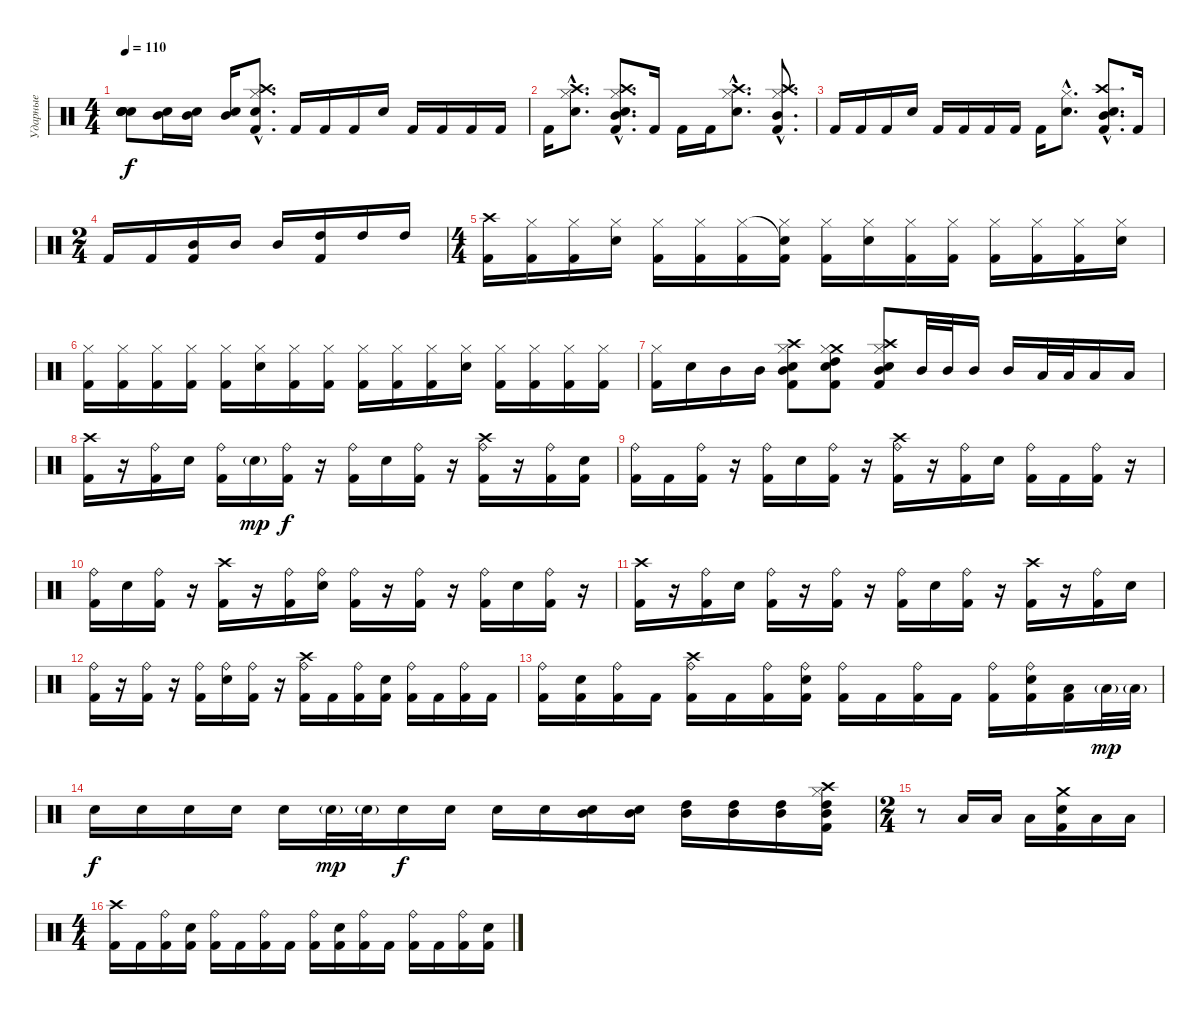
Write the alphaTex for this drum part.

\track ("Ударные" "Ударные") {instrument percussion}
\staff {score}
\articulation defaults
\ts (4 4)
\tempo 110
\clef neutral
\ks c
("Snare (hit)"{t} "Snare (hit)"{t} "Snare (hit)"{t} "Snare (hit)"{t} "Snare (hit)"{t}).8{dy f} ("Electric Snare (hit)" "Mid Tom (hit)").16 ("Electric Snare (hit)" "Mid Tom (hit)").16 ("Electric Snare (hit)" "Mid Tom (hit)").16 ("Crash high (hit)"{hac} "Hi-Hat (closed)"{hac} "Electric Snare (hit)"{hac} "Kick (hit) 2"{hac}).8{d} "Kick (hit) 2".16 "Kick (hit) 2".16 "Kick (hit) 2".16 "Electric Snare (hit)".16 "Kick (hit) 2".16 "Kick (hit) 2".16 "Kick (hit) 2".16 "Kick (hit) 2".16 |
"Kick (hit) 2".16 ("Crash high (hit)"{hac} "Hi-Hat (closed)"{hac} "Electric Snare (hit)"{hac}).8{d} ("Crash high (hit)"{hac} "Hi-Hat (closed)"{hac} "Electric Snare (hit)"{hac} "Mid Tom (hit)"{hac} "Kick (hit) 2"{hac}).8{d} "Kick (hit) 2".16 "Kick (hit) 2".16 "Kick (hit) 2".16 ("Crash high (hit)"{hac} "Hi-Hat (closed)"{hac} "Electric Snare (hit)"{hac}).8{d} ("Crash high (hit)"{hac} "Hi-Hat (closed)"{hac} "Mid Tom (hit)"{hac} "Kick (hit) 2"{hac}).8{d} |
"Kick (hit) 2".16 "Kick (hit) 2".16 "Kick (hit) 2".16 "Electric Snare (hit)".16 "Kick (hit) 2".16 "Kick (hit) 2".16 "Kick (hit) 2".16 "Kick (hit) 2".16 "Kick (hit) 2".16 ("Hi-Hat (closed)"{hac} "Electric Snare (hit)"{hac}).8{d} ("Crash high (hit)"{hac} "Mid Tom (hit)"{hac} "Electric Snare (hit)"{hac} "Kick (hit) 2"{hac}).8{d} "Kick (hit) 2".16 |
\ts (2 4)
"Kick (hit) 2".16 "Kick (hit) 2".16 ("Mid Tom (hit)" "Kick (hit) 2").16 "Mid Tom (hit)".16 "Mid Tom (hit)".16 ("High Tom (hit)" "Kick (hit) 2").16 "High Tom (hit)".16 "High Tom (hit)".16 |
\ts (4 4)
("Crash high (hit)" "Kick (hit) 2").16 ("Hi-Hat (closed)" "Kick (hit) 2").16 ("Hi-Hat (closed)" "Kick (hit) 2").16 ("Hi-Hat (closed)" "Electric Snare (hit)").16 ("Hi-Hat (closed)" "Kick (hit) 2").16 ("Hi-Hat (closed)" "Kick (hit) 2").16 ("Hi-Hat (closed)" "Kick (hit) 2").16 ("Snare (hit)"{t} "Hi-Hat (closed)" "Kick (hit) 2").16 ("Hi-Hat (closed)" "Kick (hit) 2").16 ("Hi-Hat (closed)" "Electric Snare (hit)").16 ("Hi-Hat (closed)" "Kick (hit) 2").16 ("Hi-Hat (closed)" "Kick (hit) 2").16 ("Hi-Hat (closed)" "Kick (hit) 2").16 ("Hi-Hat (closed)" "Kick (hit) 2").16 ("Hi-Hat (closed)" "Kick (hit) 2").16 ("Hi-Hat (closed)" "Electric Snare (hit)").16 |
("Hi-Hat (closed)" "Kick (hit) 2").16 ("Hi-Hat (closed)" "Kick (hit) 2").16 ("Hi-Hat (closed)" "Kick (hit) 2").16 ("Hi-Hat (closed)" "Kick (hit) 2").16 ("Hi-Hat (closed)" "Kick (hit) 2").16 ("Hi-Hat (closed)" "Electric Snare (hit)").16 ("Hi-Hat (closed)" "Kick (hit) 2").16 ("Hi-Hat (closed)" "Kick (hit) 2").16 ("Hi-Hat (closed)" "Kick (hit) 2").16 ("Hi-Hat (closed)" "Kick (hit) 2").16 ("Hi-Hat (closed)" "Kick (hit) 2").16 ("Hi-Hat (closed)" "Electric Snare (hit)").16 ("Hi-Hat (closed)" "Kick (hit) 2").16 ("Hi-Hat (closed)" "Kick (hit) 2").16 ("Hi-Hat (closed)" "Kick (hit) 2").16 ("Hi-Hat (closed)" "Kick (hit) 2").16 |
("Hi-Hat (closed)" "Kick (hit) 2").16 "Electric Snare (hit)".16 "Mid Tom (hit)".16 "Mid Tom (hit)".16 ("Crash high (hit)" "Hi-Hat (closed)" "Electric Snare (hit)" "Mid Tom (hit)" "Kick (hit) 2").8 ("Crash medium (hit)" "Hi-Hat (closed)" "Electric Snare (hit)" "High Tom (hit)" "Kick (hit) 2").8 ("Crash high (hit)" "Hi-Hat (closed)" "Electric Snare (hit)" "Mid Tom (hit)" "Kick (hit) 2").8 "Mid Tom (hit)".32 "Mid Tom (hit)".32 "Mid Tom (hit)".16 "Mid Tom (hit)".16 "Low Tom (hit)".32 "Low Tom (hit)".32 "Low Tom (hit)".16 "Low Tom (hit)".16 |
("Crash high (hit)" "Kick (hit) 2").16 r.16 ("Ride (bell)" "Kick (hit) 2").16 "Electric Snare (hit)".16 ("Ride (bell)" "Kick (hit) 2").16 "Electric Snare (hit)"{g}.16{dy mp} ("Ride (bell)" "Kick (hit) 2").16{dy f} r.16 ("Ride (bell)" "Kick (hit) 2").16 "Electric Snare (hit)".16 ("Ride (bell)" "Kick (hit) 2").16 r.16 ("Crash high (hit)" "Ride (bell)" "Kick (hit) 2").16 r.16 ("Ride (bell)" "Kick (hit) 2").16 ("Electric Snare (hit)" "Kick (hit) 2").16 |
("Ride (bell)" "Kick (hit) 2").16 "Kick (hit) 2".16 ("Ride (bell)" "Kick (hit) 2").16 r.16 ("Ride (bell)" "Kick (hit) 2").16 "Electric Snare (hit)".16 ("Ride (bell)" "Kick (hit) 2").16 r.16 ("Crash high (hit)" "Ride (bell)" "Kick (hit) 2").16 r.16 ("Ride (bell)" "Kick (hit) 2").16 "Electric Snare (hit)".16 ("Ride (bell)" "Kick (hit) 2").16 "Kick (hit) 2".16 ("Ride (bell)" "Kick (hit) 2").16 r.16 |
("Ride (bell)" "Kick (hit) 2").16 "Electric Snare (hit)".16 ("Ride (bell)" "Kick (hit) 2").16 r.16 ("Crash high (hit)" "Kick (hit) 2").16 r.16 ("Ride (bell)" "Kick (hit) 2").16 ("Ride (bell)" "Electric Snare (hit)").16 ("Ride (bell)" "Kick (hit) 2").16 r.16 ("Ride (bell)" "Kick (hit) 2").16 r.16 ("Ride (bell)" "Kick (hit) 2").16 "Electric Snare (hit)".16 ("Ride (bell)" "Kick (hit) 2").16 r.16 |
("Crash high (hit)" "Kick (hit) 2").16 r.16 ("Ride (bell)" "Kick (hit) 2").16 "Electric Snare (hit)".16 ("Ride (bell)" "Kick (hit) 2").16 r.16 ("Ride (bell)" "Kick (hit) 2").16 r.16 ("Ride (bell)" "Kick (hit) 2").16 "Electric Snare (hit)".16 ("Ride (bell)" "Kick (hit) 2").16 r.16 ("Crash high (hit)" "Kick (hit) 2").16 r.16 ("Ride (bell)" "Kick (hit) 2").16 "Electric Snare (hit)".16 |
("Ride (bell)" "Kick (hit) 2").16 r.16 ("Ride (bell)" "Kick (hit) 2").16 r.16 ("Ride (bell)" "Kick (hit) 2").16 ("Ride (bell)" "Electric Snare (hit)").16 ("Ride (bell)" "Kick (hit) 2").16 r.16 ("Crash high (hit)" "Ride (bell)" "Kick (hit) 2").16 "Kick (hit) 2".16 ("Ride (bell)" "Kick (hit) 2").16 ("Electric Snare (hit)" "Kick (hit) 2").16 ("Ride (bell)" "Kick (hit) 2").16 "Kick (hit) 2".16 ("Ride (bell)" "Kick (hit) 2").16 "Kick (hit) 2".16 |
("Ride (bell)" "Kick (hit) 2").16 ("Electric Snare (hit)" "Kick (hit) 2").16 ("Ride (bell)" "Kick (hit) 2").16 "Kick (hit) 2".16 ("Crash high (hit)" "Ride (bell)" "Kick (hit) 2").16 "Kick (hit) 2".16 ("Ride (bell)" "Kick (hit) 2").16 ("Ride (bell)" "Electric Snare (hit)" "Kick (hit) 2").16 ("Ride (bell)" "Kick (hit) 2").16 "Kick (hit) 2".16 ("Ride (bell)" "Kick (hit) 2").16 "Kick (hit) 2".16 ("Ride (bell)" "Kick (hit) 2").16 ("Ride (bell)" "Electric Snare (hit)" "Kick (hit) 2").16 ("Low Tom (hit)" "Kick (hit) 2").16 "Low Tom (hit)"{g}.32{dy mp} "Low Tom (hit)"{g}.32 |
"Electric Snare (hit)".16{dy f} "Electric Snare (hit)".16 "Electric Snare (hit)".16 "Electric Snare (hit)".16 "Electric Snare (hit)".16 "Electric Snare (hit)"{g}.32{dy mp} "Electric Snare (hit)"{g}.32 "Electric Snare (hit)".16{dy f} "Electric Snare (hit)".16 "Electric Snare (hit)".16 "Electric Snare (hit)".16 ("Mid Tom (hit)" "Electric Snare (hit)").16 ("Mid Tom (hit)" "Electric Snare (hit)").16 ("High Tom (hit)" "Mid Tom (hit)").16 ("High Tom (hit)" "Mid Tom (hit)").16 ("High Tom (hit)" "Mid Tom (hit)").16 ("Crash high (hit)" "Hi-Hat (closed)" "High Tom (hit)" "Mid Tom (hit)" "Kick (hit) 2").16 |
\ts (2 4)
r.8 "Low Tom (hit)".16 "Low Tom (hit)".16 "Low Tom (hit)".16 ("Crash medium (hit)" "Electric Snare (hit)" "Kick (hit) 2").16 "Low Tom (hit)".16 "Low Tom (hit)".16 |
\ts (4 4)
("Crash high (hit)" "Kick (hit) 2").16 "Kick (hit) 2".16 ("Ride (bell)" "Kick (hit) 2").16 ("Electric Snare (hit)" "Kick (hit) 2").16 ("Ride (bell)" "Kick (hit) 2").16 "Kick (hit) 2".16 ("Ride (bell)" "Kick (hit) 2").16 "Kick (hit) 2".16 ("Ride (bell)" "Kick (hit) 2").16 ("Electric Snare (hit)" "Kick (hit) 2").16 ("Ride (bell)" "Kick (hit) 2").16 "Kick (hit) 2".16 ("Ride (bell)" "Kick (hit) 2").16 "Kick (hit) 2".16 ("Ride (bell)" "Kick (hit) 2").16 ("Electric Snare (hit)" "Kick (hit) 2").16
